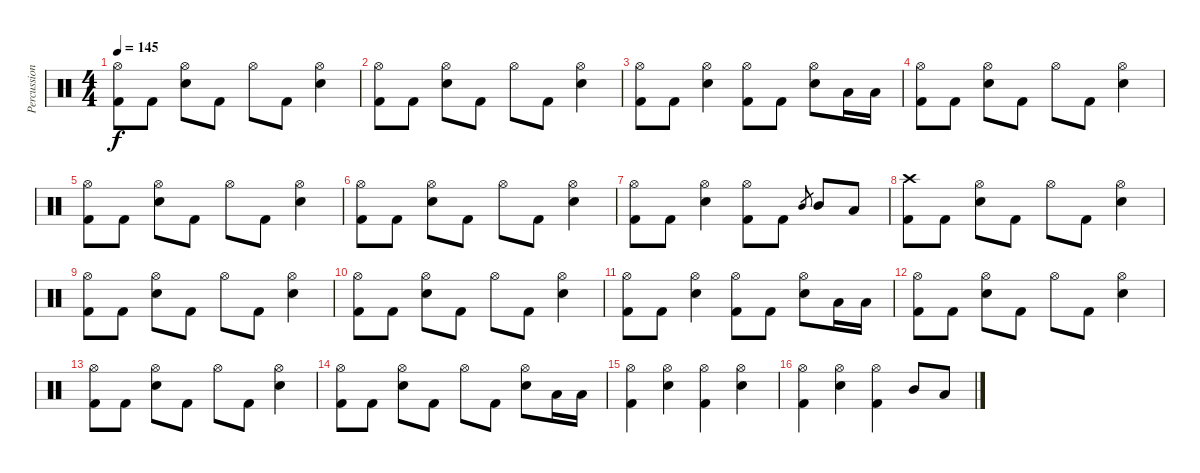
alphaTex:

\track ("Percussion" "Percussion") {instrument percussion}
\staff {score}
\articulation defaults
\ts (4 4)
\tempo 145
\clef neutral
\ks c
("Hi-Hat (open)" "Kick (hit) 2").8{dy f} "Kick (hit) 2".8 ("Hi-Hat (open)" "Snare (hit) 2").8 "Kick (hit) 2".8 "Hi-Hat (open)".8 "Kick (hit) 2".8 ("Hi-Hat (open)" "Snare (hit) 2").4 |
("Hi-Hat (open)" "Kick (hit) 2").8 "Kick (hit) 2".8 ("Hi-Hat (open)" "Snare (hit) 2").8 "Kick (hit) 2".8 "Hi-Hat (open)".8 "Kick (hit) 2".8 ("Hi-Hat (open)" "Snare (hit) 2").4 |
("Hi-Hat (open)" "Kick (hit) 2").8 "Kick (hit) 2".8 ("Hi-Hat (open)" "Snare (hit) 2").4 ("Hi-Hat (open)" "Kick (hit) 2").8 "Kick (hit) 2".8 ("Hi-Hat (open)" "Snare (hit) 2").8 "Low Tom (hit)".16 "Low Tom (hit)".16 |
("Hi-Hat (open)" "Kick (hit) 2").8 "Kick (hit) 2".8 ("Hi-Hat (open)" "Snare (hit) 2").8 "Kick (hit) 2".8 "Hi-Hat (open)".8 "Kick (hit) 2".8 ("Hi-Hat (open)" "Snare (hit) 2").4 |
("Hi-Hat (open)" "Kick (hit) 2").8 "Kick (hit) 2".8 ("Hi-Hat (open)" "Snare (hit) 2").8 "Kick (hit) 2".8 "Hi-Hat (open)".8 "Kick (hit) 2".8 ("Hi-Hat (open)" "Snare (hit) 2").4 |
("Hi-Hat (open)" "Kick (hit) 2").8 "Kick (hit) 2".8 ("Hi-Hat (open)" "Snare (hit) 2").8 "Kick (hit) 2".8 "Hi-Hat (open)".8 "Kick (hit) 2".8 ("Hi-Hat (open)" "Snare (hit) 2").4 |
("Hi-Hat (open)" "Kick (hit) 2").8 "Kick (hit) 2".8 ("Hi-Hat (open)" "Snare (hit) 2").4 ("Hi-Hat (open)" "Kick (hit) 2").8 "Kick (hit) 2".8 "Mid Tom (hit)".8{gr} "Mid Tom (hit)".8 "Low Tom (hit)".8 |
("Crash high (hit)" "Kick (hit) 2").8 "Kick (hit) 2".8 ("Hi-Hat (open)" "Snare (hit) 2").8 "Kick (hit) 2".8 "Hi-Hat (open)".8 "Kick (hit) 2".8 ("Hi-Hat (open)" "Snare (hit) 2").4 |
("Hi-Hat (open)" "Kick (hit) 2").8 "Kick (hit) 2".8 ("Hi-Hat (open)" "Snare (hit) 2").8 "Kick (hit) 2".8 "Hi-Hat (open)".8 "Kick (hit) 2".8 ("Hi-Hat (open)" "Snare (hit) 2").4 |
("Hi-Hat (open)" "Kick (hit) 2").8 "Kick (hit) 2".8 ("Hi-Hat (open)" "Snare (hit) 2").8 "Kick (hit) 2".8 "Hi-Hat (open)".8 "Kick (hit) 2".8 ("Hi-Hat (open)" "Snare (hit) 2").4 |
("Hi-Hat (open)" "Kick (hit) 2").8 "Kick (hit) 2".8 ("Hi-Hat (open)" "Snare (hit) 2").4 ("Hi-Hat (open)" "Kick (hit) 2").8 "Kick (hit) 2".8 ("Hi-Hat (open)" "Snare (hit) 2").8 "Low Tom (hit)".16 "Low Tom (hit)".16 |
("Hi-Hat (open)" "Kick (hit) 2").8 "Kick (hit) 2".8 ("Hi-Hat (open)" "Snare (hit) 2").8 "Kick (hit) 2".8 "Hi-Hat (open)".8 "Kick (hit) 2".8 ("Hi-Hat (open)" "Snare (hit) 2").4 |
("Hi-Hat (open)" "Kick (hit) 2").8 "Kick (hit) 2".8 ("Hi-Hat (open)" "Snare (hit) 2").8 "Kick (hit) 2".8 "Hi-Hat (open)".8 "Kick (hit) 2".8 ("Hi-Hat (open)" "Snare (hit) 2").4 |
("Hi-Hat (open)" "Kick (hit) 2").8 "Kick (hit) 2".8 ("Hi-Hat (open)" "Snare (hit) 2").8 "Kick (hit) 2".8 "Hi-Hat (open)".8 "Kick (hit) 2".8 ("Hi-Hat (open)" "Snare (hit) 2").8 "Low Tom (hit)".16 "Low Tom (hit)".16 |
("Hi-Hat (open)" "Kick (hit) 2").4 ("Hi-Hat (open)" "Snare (hit) 2").4 ("Hi-Hat (open)" "Kick (hit) 2").4 ("Hi-Hat (open)" "Snare (hit) 2").4 |
("Hi-Hat (open)" "Kick (hit) 2").4 ("Hi-Hat (open)" "Snare (hit) 2").4 ("Hi-Hat (open)" "Kick (hit) 2").4 "Mid Tom (hit)".8 "Low Tom (hit)".8
